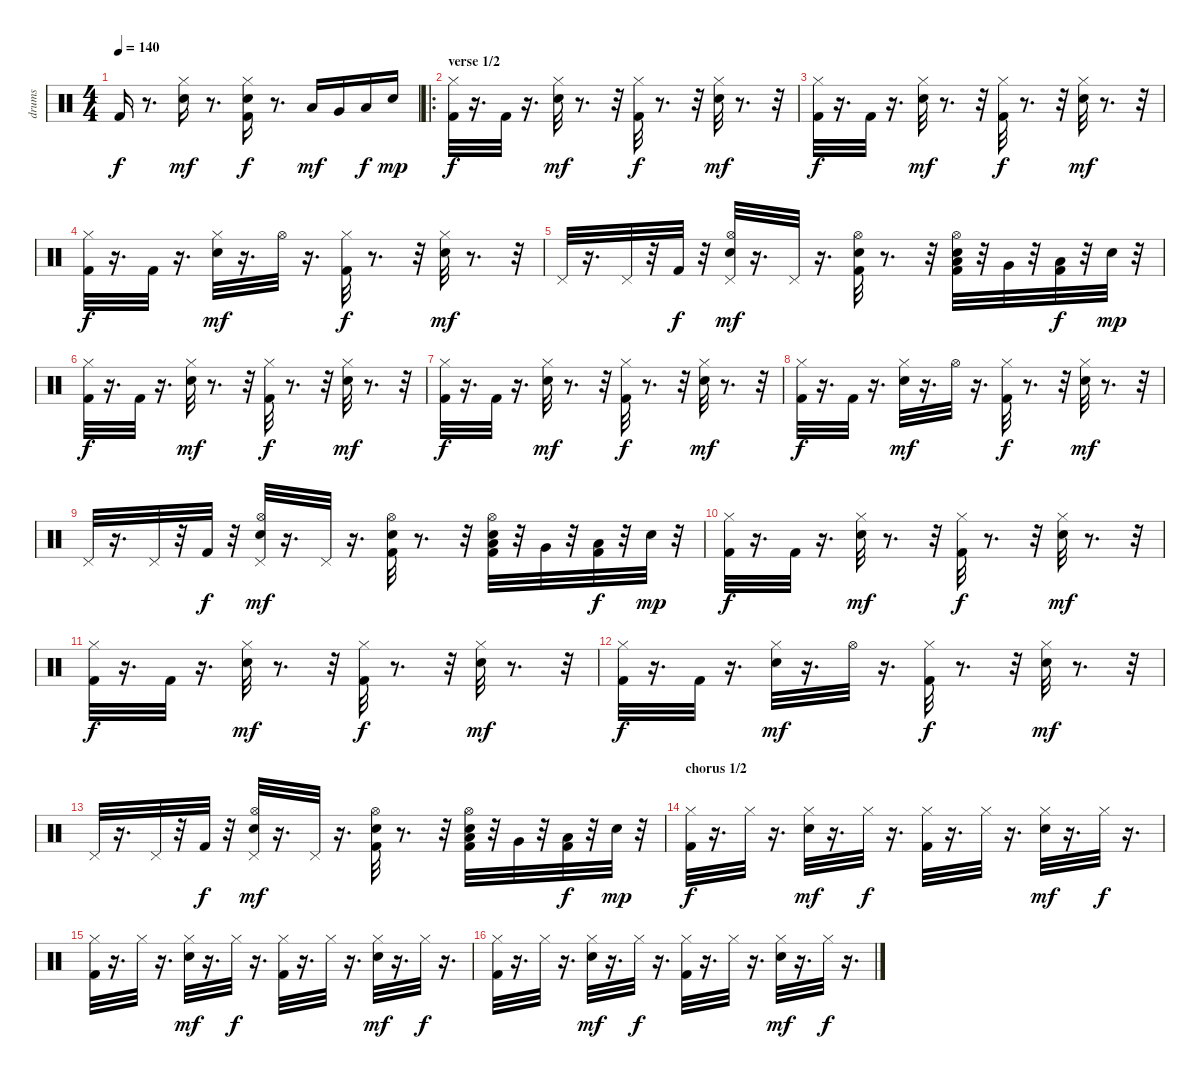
\track ("drums" "drums") {instrument percussion}
\staff {score}
\articulation defaults
\ts (4 4)
\tempo 140
\clef neutral
\ks c "Kick (hit) 2".16{dy f}
r.8{d} ("Snare (hit) 2" "Hi-Hat (closed)").16{dy mf} r.8{d} ("Kick (hit) 2" "Snare (hit) 2" "Hi-Hat (closed)").16{dy f} r.8{d} "Low Tom (hit)".16{dy mf} "Very Low Tom (hit)".16 "Low Floor Tom (hit)".16{dy f} "Electric Snare (hit)".16{dy mp} |
\ro
\section ("" "verse 1/2")
("Kick (hit) 2" "Hi-Hat (closed)").32{dy f} r.16{d} "Kick (hit) 2".32 r.16{d} ("Snare (hit) 2" "Hi-Hat (closed)").32{dy mf} r.8{d} r.32 ("Kick (hit) 2" "Hi-Hat (closed)").32{dy f} r.8{d} r.32 ("Snare (hit) 2" "Hi-Hat (closed)").32{dy mf} r.8{d} r.32 |
("Kick (hit) 2" "Hi-Hat (closed)").32{dy f} r.16{d} "Kick (hit) 2".32 r.16{d} ("Snare (hit) 2" "Hi-Hat (closed)").32{dy mf} r.8{d} r.32 ("Kick (hit) 2" "Hi-Hat (closed)").32{dy f} r.8{d} r.32 ("Snare (hit) 2" "Hi-Hat (closed)").32{dy mf} r.8{d} r.32 |
("Kick (hit) 2" "Hi-Hat (closed)").32{dy f} r.16{d} "Kick (hit) 2".32 r.16{d} ("Snare (hit) 2" "Hi-Hat (closed)").32{dy mf} r.16{d} "Hi-Hat (open)".32 r.16{d} ("Kick (hit) 2" "Hi-Hat (closed)").32{dy f} r.8{d} r.32 ("Snare (hit) 2" "Hi-Hat (closed)").32{dy mf} r.8{d} r.32 |
"Pedal Hi-Hat (hit)".32 r.16{d} "Pedal Hi-Hat (hit)".32 r.32 "Kick (hit) 2".32{dy f} r.32 ("Snare (hit) 2" "Pedal Hi-Hat (hit)" "Hi-Hat (open)").32{dy mf} r.16{d} "Pedal Hi-Hat (hit)".32 r.16{d} ("Kick (hit) 2" "Snare (hit) 2" "Hi-Hat (open)").32 r.8{d} r.32 ("Kick (hit) 2" "Snare (hit) 2" "Low Tom (hit)" "Hi-Hat (open)").32 r.32 "Very Low Tom (hit)".32 r.32 ("Kick (hit) 2" "Low Floor Tom (hit)").32{dy f} r.32 "Electric Snare (hit)".32{dy mp} r.32 |
("Kick (hit) 2" "Hi-Hat (closed)").32{dy f} r.16{d} "Kick (hit) 2".32 r.16{d} ("Snare (hit) 2" "Hi-Hat (closed)").32{dy mf} r.8{d} r.32 ("Kick (hit) 2" "Hi-Hat (closed)").32{dy f} r.8{d} r.32 ("Snare (hit) 2" "Hi-Hat (closed)").32{dy mf} r.8{d} r.32 |
("Kick (hit) 2" "Hi-Hat (closed)").32{dy f} r.16{d} "Kick (hit) 2".32 r.16{d} ("Snare (hit) 2" "Hi-Hat (closed)").32{dy mf} r.8{d} r.32 ("Kick (hit) 2" "Hi-Hat (closed)").32{dy f} r.8{d} r.32 ("Snare (hit) 2" "Hi-Hat (closed)").32{dy mf} r.8{d} r.32 |
("Kick (hit) 2" "Hi-Hat (closed)").32{dy f} r.16{d} "Kick (hit) 2".32 r.16{d} ("Snare (hit) 2" "Hi-Hat (closed)").32{dy mf} r.16{d} "Hi-Hat (open)".32 r.16{d} ("Kick (hit) 2" "Hi-Hat (closed)").32{dy f} r.8{d} r.32 ("Snare (hit) 2" "Hi-Hat (closed)").32{dy mf} r.8{d} r.32 |
"Pedal Hi-Hat (hit)".32 r.16{d} "Pedal Hi-Hat (hit)".32 r.32 "Kick (hit) 2".32{dy f} r.32 ("Snare (hit) 2" "Pedal Hi-Hat (hit)" "Hi-Hat (open)").32{dy mf} r.16{d} "Pedal Hi-Hat (hit)".32 r.16{d} ("Kick (hit) 2" "Snare (hit) 2" "Hi-Hat (open)").32 r.8{d} r.32 ("Kick (hit) 2" "Snare (hit) 2" "Low Tom (hit)" "Hi-Hat (open)").32 r.32 "Very Low Tom (hit)".32 r.32 ("Kick (hit) 2" "Low Floor Tom (hit)").32{dy f} r.32 "Electric Snare (hit)".32{dy mp} r.32 |
("Kick (hit) 2" "Hi-Hat (closed)").32{dy f} r.16{d} "Kick (hit) 2".32 r.16{d} ("Snare (hit) 2" "Hi-Hat (closed)").32{dy mf} r.8{d} r.32 ("Kick (hit) 2" "Hi-Hat (closed)").32{dy f} r.8{d} r.32 ("Snare (hit) 2" "Hi-Hat (closed)").32{dy mf} r.8{d} r.32 |
("Kick (hit) 2" "Hi-Hat (closed)").32{dy f} r.16{d} "Kick (hit) 2".32 r.16{d} ("Snare (hit) 2" "Hi-Hat (closed)").32{dy mf} r.8{d} r.32 ("Kick (hit) 2" "Hi-Hat (closed)").32{dy f} r.8{d} r.32 ("Snare (hit) 2" "Hi-Hat (closed)").32{dy mf} r.8{d} r.32 |
("Kick (hit) 2" "Hi-Hat (closed)").32{dy f} r.16{d} "Kick (hit) 2".32 r.16{d} ("Snare (hit) 2" "Hi-Hat (closed)").32{dy mf} r.16{d} "Hi-Hat (open)".32 r.16{d} ("Kick (hit) 2" "Hi-Hat (closed)").32{dy f} r.8{d} r.32 ("Snare (hit) 2" "Hi-Hat (closed)").32{dy mf} r.8{d} r.32 |
"Pedal Hi-Hat (hit)".32 r.16{d} "Pedal Hi-Hat (hit)".32 r.32 "Kick (hit) 2".32{dy f} r.32 ("Snare (hit) 2" "Pedal Hi-Hat (hit)" "Hi-Hat (open)").32{dy mf} r.16{d} "Pedal Hi-Hat (hit)".32 r.16{d} ("Kick (hit) 2" "Snare (hit) 2" "Hi-Hat (open)").32 r.8{d} r.32 ("Kick (hit) 2" "Snare (hit) 2" "Low Tom (hit)" "Hi-Hat (open)").32 r.32 "Very Low Tom (hit)".32 r.32 ("Kick (hit) 2" "Low Floor Tom (hit)").32{dy f} r.32 "Electric Snare (hit)".32{dy mp} r.32 |
\section ("" "chorus 1/2")
("Kick (hit) 2" "Hi-Hat (closed)").32{dy f} r.16{d} "Hi-Hat (closed)".32 r.16{d} ("Snare (hit) 2" "Hi-Hat (closed)").32{dy mf} r.16{d} "Hi-Hat (closed)".32{dy f} r.16{d} ("Kick (hit) 2" "Hi-Hat (closed)").32 r.16{d} "Hi-Hat (closed)".32 r.16{d} ("Snare (hit) 2" "Hi-Hat (closed)").32{dy mf} r.16{d} "Hi-Hat (closed)".32{dy f} r.16{d} |
("Kick (hit) 2" "Hi-Hat (closed)").32 r.16{d} "Hi-Hat (closed)".32 r.16{d} ("Snare (hit) 2" "Hi-Hat (closed)").32{dy mf} r.16{d} "Hi-Hat (closed)".32{dy f} r.16{d} ("Kick (hit) 2" "Hi-Hat (closed)").32 r.16{d} "Hi-Hat (closed)".32 r.16{d} ("Snare (hit) 2" "Hi-Hat (closed)").32{dy mf} r.16{d} "Hi-Hat (closed)".32{dy f} r.16{d} |
("Kick (hit) 2" "Hi-Hat (closed)").32 r.16{d} "Hi-Hat (closed)".32 r.16{d} ("Snare (hit) 2" "Hi-Hat (closed)").32{dy mf} r.16{d} "Hi-Hat (closed)".32{dy f} r.16{d} ("Kick (hit) 2" "Hi-Hat (closed)").32 r.16{d} "Hi-Hat (closed)".32 r.16{d} ("Snare (hit) 2" "Hi-Hat (closed)").32{dy mf} r.16{d} "Hi-Hat (closed)".32{dy f} r.16{d}
